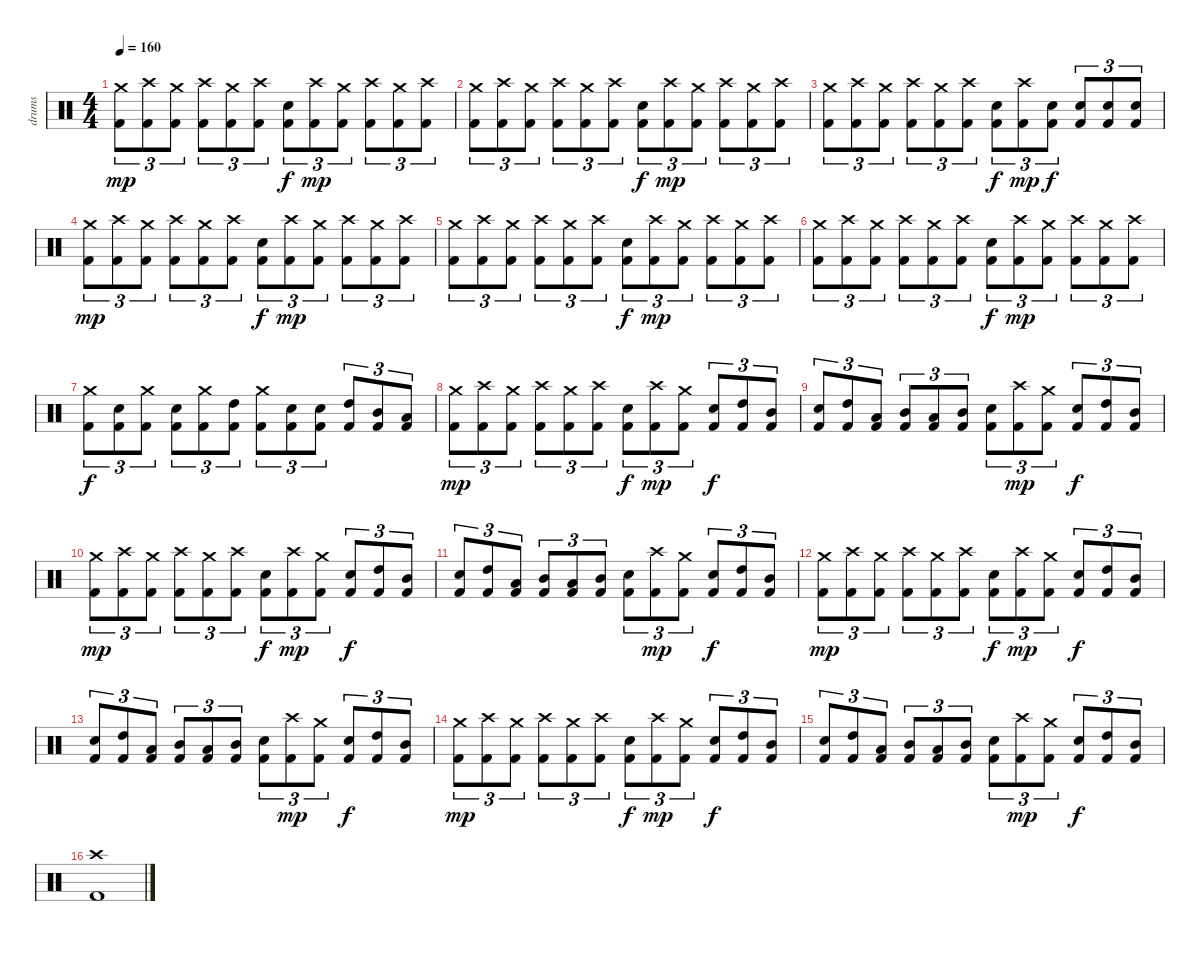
\track ("drums" "drums") {instrument percussion}
\staff {score}
\articulation defaults
\ts (4 4)
\tempo 160
\clef neutral
\ks c
("Crash medium (hit)" "Kick (hit) 2").8{tu (3 2) dy mp} ("Crash high (hit)" "Kick (hit) 2").8{tu (3 2)} ("Crash medium (hit)" "Kick (hit) 2").8{tu (3 2)} ("Crash high (hit)" "Kick (hit) 2").8{tu (3 2)} ("Crash medium (hit)" "Kick (hit) 2").8{tu (3 2)} ("Crash high (hit)" "Kick (hit) 2").8{tu (3 2)} ("Electric Snare (hit)" "Kick (hit) 2").8{tu (3 2) dy f} ("Crash high (hit)" "Kick (hit) 2").8{tu (3 2) dy mp} ("Crash medium (hit)" "Kick (hit) 2").8{tu (3 2)} ("Crash high (hit)" "Kick (hit) 2").8{tu (3 2)} ("Crash medium (hit)" "Kick (hit) 2").8{tu (3 2)} ("Crash high (hit)" "Kick (hit) 2").8{tu (3 2)} |
("Crash medium (hit)" "Kick (hit) 2").8{tu (3 2)} ("Crash high (hit)" "Kick (hit) 2").8{tu (3 2)} ("Crash medium (hit)" "Kick (hit) 2").8{tu (3 2)} ("Crash high (hit)" "Kick (hit) 2").8{tu (3 2)} ("Crash medium (hit)" "Kick (hit) 2").8{tu (3 2)} ("Crash high (hit)" "Kick (hit) 2").8{tu (3 2)} ("Electric Snare (hit)" "Kick (hit) 2").8{tu (3 2) dy f} ("Crash high (hit)" "Kick (hit) 2").8{tu (3 2) dy mp} ("Crash medium (hit)" "Kick (hit) 2").8{tu (3 2)} ("Crash high (hit)" "Kick (hit) 2").8{tu (3 2)} ("Crash medium (hit)" "Kick (hit) 2").8{tu (3 2)} ("Crash high (hit)" "Kick (hit) 2").8{tu (3 2)} |
("Crash medium (hit)" "Kick (hit) 2").8{tu (3 2)} ("Crash high (hit)" "Kick (hit) 2").8{tu (3 2)} ("Crash medium (hit)" "Kick (hit) 2").8{tu (3 2)} ("Crash high (hit)" "Kick (hit) 2").8{tu (3 2)} ("Crash medium (hit)" "Kick (hit) 2").8{tu (3 2)} ("Crash high (hit)" "Kick (hit) 2").8{tu (3 2)} ("Electric Snare (hit)" "Kick (hit) 2").8{tu (3 2) dy f} ("Crash high (hit)" "Kick (hit) 2").8{tu (3 2) dy mp} ("Electric Snare (hit)" "Kick (hit) 2").8{tu (3 2) dy f} ("Electric Snare (hit)" "Kick (hit) 2").8{tu (3 2)} ("Electric Snare (hit)" "Kick (hit) 2").8{tu (3 2)} ("Electric Snare (hit)" "Kick (hit) 2").8{tu (3 2)} |
("Crash medium (hit)" "Kick (hit) 2").8{tu (3 2) dy mp} ("Crash high (hit)" "Kick (hit) 2").8{tu (3 2)} ("Crash medium (hit)" "Kick (hit) 2").8{tu (3 2)} ("Crash high (hit)" "Kick (hit) 2").8{tu (3 2)} ("Crash medium (hit)" "Kick (hit) 2").8{tu (3 2)} ("Crash high (hit)" "Kick (hit) 2").8{tu (3 2)} ("Electric Snare (hit)" "Kick (hit) 2").8{tu (3 2) dy f} ("Crash high (hit)" "Kick (hit) 2").8{tu (3 2) dy mp} ("Crash medium (hit)" "Kick (hit) 2").8{tu (3 2)} ("Crash high (hit)" "Kick (hit) 2").8{tu (3 2)} ("Crash medium (hit)" "Kick (hit) 2").8{tu (3 2)} ("Crash high (hit)" "Kick (hit) 2").8{tu (3 2)} |
("Crash medium (hit)" "Kick (hit) 2").8{tu (3 2)} ("Crash high (hit)" "Kick (hit) 2").8{tu (3 2)} ("Crash medium (hit)" "Kick (hit) 2").8{tu (3 2)} ("Crash high (hit)" "Kick (hit) 2").8{tu (3 2)} ("Crash medium (hit)" "Kick (hit) 2").8{tu (3 2)} ("Crash high (hit)" "Kick (hit) 2").8{tu (3 2)} ("Electric Snare (hit)" "Kick (hit) 2").8{tu (3 2) dy f} ("Crash high (hit)" "Kick (hit) 2").8{tu (3 2) dy mp} ("Crash medium (hit)" "Kick (hit) 2").8{tu (3 2)} ("Crash high (hit)" "Kick (hit) 2").8{tu (3 2)} ("Crash medium (hit)" "Kick (hit) 2").8{tu (3 2)} ("Crash high (hit)" "Kick (hit) 2").8{tu (3 2)} |
("Crash medium (hit)" "Kick (hit) 2").8{tu (3 2)} ("Crash high (hit)" "Kick (hit) 2").8{tu (3 2)} ("Crash medium (hit)" "Kick (hit) 2").8{tu (3 2)} ("Crash high (hit)" "Kick (hit) 2").8{tu (3 2)} ("Crash medium (hit)" "Kick (hit) 2").8{tu (3 2)} ("Crash high (hit)" "Kick (hit) 2").8{tu (3 2)} ("Electric Snare (hit)" "Kick (hit) 2").8{tu (3 2) dy f} ("Crash high (hit)" "Kick (hit) 2").8{tu (3 2) dy mp} ("Crash medium (hit)" "Kick (hit) 2").8{tu (3 2)} ("Crash high (hit)" "Kick (hit) 2").8{tu (3 2)} ("Crash medium (hit)" "Kick (hit) 2").8{tu (3 2)} ("Crash high (hit)" "Kick (hit) 2").8{tu (3 2)} |
("Crash medium (hit)" "Kick (hit) 2").8{tu (3 2) dy f} ("Electric Snare (hit)" "Kick (hit) 2").8{tu (3 2)} ("Crash medium (hit)" "Kick (hit) 2").8{tu (3 2)} ("Electric Snare (hit)" "Kick (hit) 2").8{tu (3 2)} ("Crash medium (hit)" "Kick (hit) 2").8{tu (3 2)} ("High Tom (hit)" "Kick (hit) 2").8{tu (3 2)} ("Crash medium (hit)" "Kick (hit) 2").8{tu (3 2)} ("Electric Snare (hit)" "Kick (hit) 2").8{tu (3 2)} ("Electric Snare (hit)" "Kick (hit) 2").8{tu (3 2)} ("High Tom (hit)" "Kick (hit) 2").8{tu (3 2)} ("Mid Tom (hit)" "Kick (hit) 2").8{tu (3 2)} ("Low Tom (hit)" "Kick (hit) 2").8{tu (3 2)} |
("Crash medium (hit)" "Kick (hit) 2").8{tu (3 2) dy mp} ("Crash high (hit)" "Kick (hit) 2").8{tu (3 2)} ("Crash medium (hit)" "Kick (hit) 2").8{tu (3 2)} ("Crash high (hit)" "Kick (hit) 2").8{tu (3 2)} ("Crash medium (hit)" "Kick (hit) 2").8{tu (3 2)} ("Crash high (hit)" "Kick (hit) 2").8{tu (3 2)} ("Electric Snare (hit)" "Kick (hit) 2").8{tu (3 2) dy f} ("Crash high (hit)" "Kick (hit) 2").8{tu (3 2) dy mp} ("Crash medium (hit)" "Kick (hit) 2").8{tu (3 2)} ("Electric Snare (hit)" "Kick (hit) 2").8{tu (3 2) dy f} ("High Tom (hit)" "Kick (hit) 2").8{tu (3 2)} ("Mid Tom (hit)" "Kick (hit) 2").8{tu (3 2)} |
("Electric Snare (hit)" "Kick (hit) 2").8{tu (3 2)} ("High Tom (hit)" "Kick (hit) 2").8{tu (3 2)} ("Low Tom (hit)" "Kick (hit) 2").8{tu (3 2)} ("Mid Tom (hit)" "Kick (hit) 2").8{tu (3 2)} ("Low Tom (hit)" "Kick (hit) 2").8{tu (3 2)} ("Mid Tom (hit)" "Kick (hit) 2").8{tu (3 2)} ("Electric Snare (hit)" "Kick (hit) 2").8{tu (3 2)} ("Crash high (hit)" "Kick (hit) 2").8{tu (3 2) dy mp} ("Crash medium (hit)" "Kick (hit) 2").8{tu (3 2)} ("Electric Snare (hit)" "Kick (hit) 2").8{tu (3 2) dy f} ("High Tom (hit)" "Kick (hit) 2").8{tu (3 2)} ("Mid Tom (hit)" "Kick (hit) 2").8{tu (3 2)} |
("Crash medium (hit)" "Kick (hit) 2").8{tu (3 2) dy mp} ("Crash high (hit)" "Kick (hit) 2").8{tu (3 2)} ("Crash medium (hit)" "Kick (hit) 2").8{tu (3 2)} ("Crash high (hit)" "Kick (hit) 2").8{tu (3 2)} ("Crash medium (hit)" "Kick (hit) 2").8{tu (3 2)} ("Crash high (hit)" "Kick (hit) 2").8{tu (3 2)} ("Electric Snare (hit)" "Kick (hit) 2").8{tu (3 2) dy f} ("Crash high (hit)" "Kick (hit) 2").8{tu (3 2) dy mp} ("Crash medium (hit)" "Kick (hit) 2").8{tu (3 2)} ("Electric Snare (hit)" "Kick (hit) 2").8{tu (3 2) dy f} ("High Tom (hit)" "Kick (hit) 2").8{tu (3 2)} ("Mid Tom (hit)" "Kick (hit) 2").8{tu (3 2)} |
("Electric Snare (hit)" "Kick (hit) 2").8{tu (3 2)} ("High Tom (hit)" "Kick (hit) 2").8{tu (3 2)} ("Low Tom (hit)" "Kick (hit) 2").8{tu (3 2)} ("Mid Tom (hit)" "Kick (hit) 2").8{tu (3 2)} ("Low Tom (hit)" "Kick (hit) 2").8{tu (3 2)} ("Mid Tom (hit)" "Kick (hit) 2").8{tu (3 2)} ("Electric Snare (hit)" "Kick (hit) 2").8{tu (3 2)} ("Crash high (hit)" "Kick (hit) 2").8{tu (3 2) dy mp} ("Crash medium (hit)" "Kick (hit) 2").8{tu (3 2)} ("Electric Snare (hit)" "Kick (hit) 2").8{tu (3 2) dy f} ("High Tom (hit)" "Kick (hit) 2").8{tu (3 2)} ("Mid Tom (hit)" "Kick (hit) 2").8{tu (3 2)} |
("Crash medium (hit)" "Kick (hit) 2").8{tu (3 2) dy mp} ("Crash high (hit)" "Kick (hit) 2").8{tu (3 2)} ("Crash medium (hit)" "Kick (hit) 2").8{tu (3 2)} ("Crash high (hit)" "Kick (hit) 2").8{tu (3 2)} ("Crash medium (hit)" "Kick (hit) 2").8{tu (3 2)} ("Crash high (hit)" "Kick (hit) 2").8{tu (3 2)} ("Electric Snare (hit)" "Kick (hit) 2").8{tu (3 2) dy f} ("Crash high (hit)" "Kick (hit) 2").8{tu (3 2) dy mp} ("Crash medium (hit)" "Kick (hit) 2").8{tu (3 2)} ("Electric Snare (hit)" "Kick (hit) 2").8{tu (3 2) dy f} ("High Tom (hit)" "Kick (hit) 2").8{tu (3 2)} ("Mid Tom (hit)" "Kick (hit) 2").8{tu (3 2)} |
("Electric Snare (hit)" "Kick (hit) 2").8{tu (3 2)} ("High Tom (hit)" "Kick (hit) 2").8{tu (3 2)} ("Low Tom (hit)" "Kick (hit) 2").8{tu (3 2)} ("Mid Tom (hit)" "Kick (hit) 2").8{tu (3 2)} ("Low Tom (hit)" "Kick (hit) 2").8{tu (3 2)} ("Mid Tom (hit)" "Kick (hit) 2").8{tu (3 2)} ("Electric Snare (hit)" "Kick (hit) 2").8{tu (3 2)} ("Crash high (hit)" "Kick (hit) 2").8{tu (3 2) dy mp} ("Crash medium (hit)" "Kick (hit) 2").8{tu (3 2)} ("Electric Snare (hit)" "Kick (hit) 2").8{tu (3 2) dy f} ("High Tom (hit)" "Kick (hit) 2").8{tu (3 2)} ("Mid Tom (hit)" "Kick (hit) 2").8{tu (3 2)} |
("Crash medium (hit)" "Kick (hit) 2").8{tu (3 2) dy mp} ("Crash high (hit)" "Kick (hit) 2").8{tu (3 2)} ("Crash medium (hit)" "Kick (hit) 2").8{tu (3 2)} ("Crash high (hit)" "Kick (hit) 2").8{tu (3 2)} ("Crash medium (hit)" "Kick (hit) 2").8{tu (3 2)} ("Crash high (hit)" "Kick (hit) 2").8{tu (3 2)} ("Electric Snare (hit)" "Kick (hit) 2").8{tu (3 2) dy f} ("Crash high (hit)" "Kick (hit) 2").8{tu (3 2) dy mp} ("Crash medium (hit)" "Kick (hit) 2").8{tu (3 2)} ("Electric Snare (hit)" "Kick (hit) 2").8{tu (3 2) dy f} ("High Tom (hit)" "Kick (hit) 2").8{tu (3 2)} ("Mid Tom (hit)" "Kick (hit) 2").8{tu (3 2)} |
("Electric Snare (hit)" "Kick (hit) 2").8{tu (3 2)} ("High Tom (hit)" "Kick (hit) 2").8{tu (3 2)} ("Low Tom (hit)" "Kick (hit) 2").8{tu (3 2)} ("Mid Tom (hit)" "Kick (hit) 2").8{tu (3 2)} ("Low Tom (hit)" "Kick (hit) 2").8{tu (3 2)} ("Mid Tom (hit)" "Kick (hit) 2").8{tu (3 2)} ("Electric Snare (hit)" "Kick (hit) 2").8{tu (3 2)} ("Crash high (hit)" "Kick (hit) 2").8{tu (3 2) dy mp} ("Crash medium (hit)" "Kick (hit) 2").8{tu (3 2)} ("Electric Snare (hit)" "Kick (hit) 2").8{tu (3 2) dy f} ("High Tom (hit)" "Kick (hit) 2").8{tu (3 2)} ("Mid Tom (hit)" "Kick (hit) 2").8{tu (3 2)} |
("Crash high (hit)" "Kick (hit) 2").1
